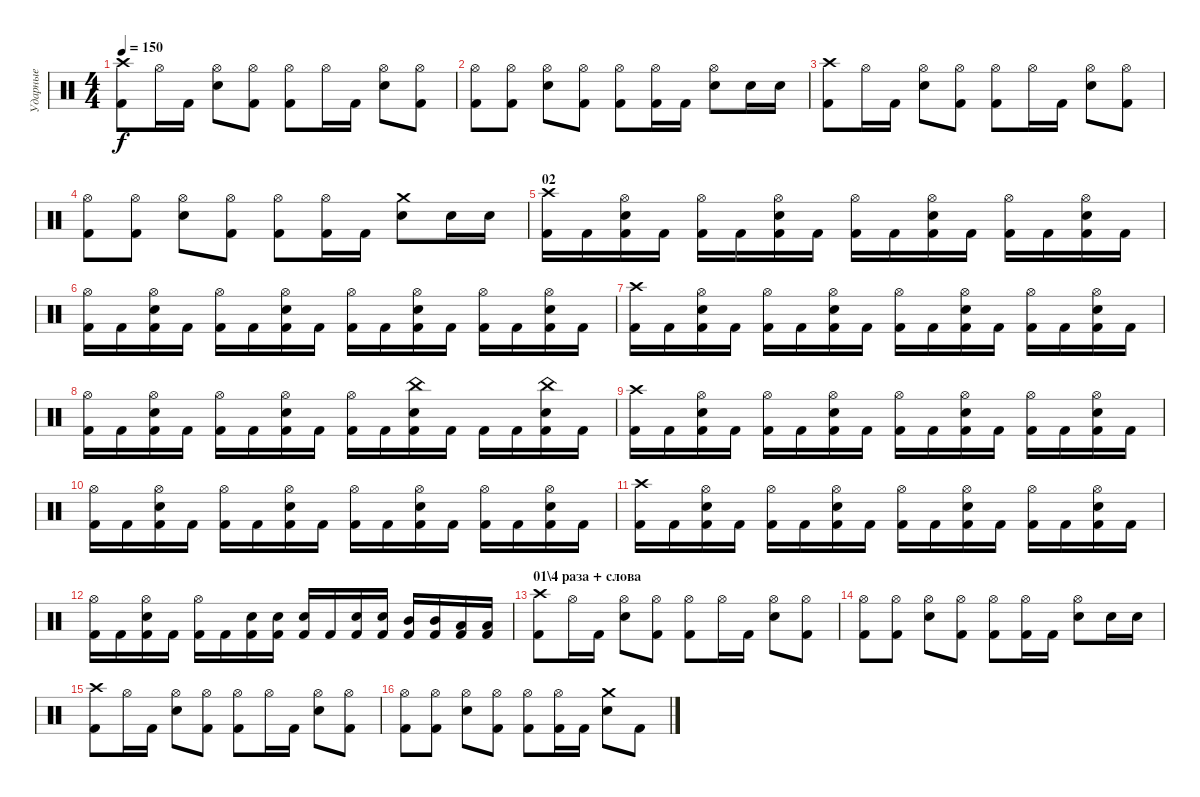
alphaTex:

\track ("Ударные" "Ударные") {instrument percussion}
\staff {score}
\articulation defaults
\ts (4 4)
\tempo 150
\clef neutral
\ks c
("Crash high (hit)" "Kick (hit) 2").8{dy f} "Hi-Hat (open)".16 "Kick (hit) 2".16 ("Hi-Hat (open)" "Electric Snare (hit)").8 ("Hi-Hat (open)" "Kick (hit) 2").8 ("Hi-Hat (open)" "Kick (hit) 2").8 "Hi-Hat (open)".16 "Kick (hit) 2".16 ("Hi-Hat (open)" "Electric Snare (hit)").8 ("Hi-Hat (open)" "Kick (hit) 2").8 |
("Hi-Hat (open)" "Kick (hit) 2").8 ("Hi-Hat (open)" "Kick (hit) 2").8 ("Hi-Hat (open)" "Electric Snare (hit)").8 ("Hi-Hat (open)" "Kick (hit) 2").8 ("Hi-Hat (open)" "Kick (hit) 2").8 ("Hi-Hat (open)" "Kick (hit) 2").16 "Kick (hit) 2".16 ("Hi-Hat (open)" "Electric Snare (hit)").8 "Electric Snare (hit)".16 "Electric Snare (hit)".16 |
("Crash high (hit)" "Kick (hit) 2").8 "Hi-Hat (open)".16 "Kick (hit) 2".16 ("Hi-Hat (open)" "Electric Snare (hit)").8 ("Hi-Hat (open)" "Kick (hit) 2").8 ("Hi-Hat (open)" "Kick (hit) 2").8 "Hi-Hat (open)".16 "Kick (hit) 2".16 ("Hi-Hat (open)" "Electric Snare (hit)").8 ("Hi-Hat (open)" "Kick (hit) 2").8 |
("Hi-Hat (open)" "Kick (hit) 2").8 ("Hi-Hat (open)" "Kick (hit) 2").8 ("Hi-Hat (open)" "Electric Snare (hit)").8 ("Hi-Hat (open)" "Kick (hit) 2").8 ("Hi-Hat (open)" "Kick (hit) 2").8 ("Hi-Hat (open)" "Kick (hit) 2").16 "Kick (hit) 2".16 ("Crash medium (hit)" "Electric Snare (hit)").8 "Electric Snare (hit)".16 "Electric Snare (hit)".16 |
\section ("" "02")
("Crash high (hit)" "Kick (hit) 2").16 "Kick (hit) 2".16 ("Hi-Hat (open)" "Electric Snare (hit)" "Kick (hit) 2").16 "Kick (hit) 2".16 ("Hi-Hat (open)" "Kick (hit) 2").16 "Kick (hit) 2".16 ("Hi-Hat (open)" "Electric Snare (hit)" "Kick (hit) 2").16 "Kick (hit) 2".16 ("Hi-Hat (open)" "Kick (hit) 2").16 "Kick (hit) 2".16 ("Hi-Hat (open)" "Electric Snare (hit)" "Kick (hit) 2").16 "Kick (hit) 2".16 ("Hi-Hat (open)" "Kick (hit) 2").16 "Kick (hit) 2".16 ("Hi-Hat (open)" "Electric Snare (hit)" "Kick (hit) 2").16 "Kick (hit) 2".16 |
("Hi-Hat (open)" "Kick (hit) 2").16 "Kick (hit) 2".16 ("Hi-Hat (open)" "Electric Snare (hit)" "Kick (hit) 2").16 "Kick (hit) 2".16 ("Hi-Hat (open)" "Kick (hit) 2").16 "Kick (hit) 2".16 ("Hi-Hat (open)" "Electric Snare (hit)" "Kick (hit) 2").16 "Kick (hit) 2".16 ("Hi-Hat (open)" "Kick (hit) 2").16 "Kick (hit) 2".16 ("Hi-Hat (open)" "Electric Snare (hit)" "Kick (hit) 2").16 "Kick (hit) 2".16 ("Hi-Hat (open)" "Kick (hit) 2").16 "Kick (hit) 2".16 ("Hi-Hat (open)" "Electric Snare (hit)" "Kick (hit) 2").16 "Kick (hit) 2".16 |
("Crash high (hit)" "Kick (hit) 2").16 "Kick (hit) 2".16 ("Hi-Hat (open)" "Electric Snare (hit)" "Kick (hit) 2").16 "Kick (hit) 2".16 ("Hi-Hat (open)" "Kick (hit) 2").16 "Kick (hit) 2".16 ("Hi-Hat (open)" "Electric Snare (hit)" "Kick (hit) 2").16 "Kick (hit) 2".16 ("Hi-Hat (open)" "Kick (hit) 2").16 "Kick (hit) 2".16 ("Hi-Hat (open)" "Electric Snare (hit)" "Kick (hit) 2").16 "Kick (hit) 2".16 ("Hi-Hat (open)" "Kick (hit) 2").16 "Kick (hit) 2".16 ("Hi-Hat (open)" "Electric Snare (hit)" "Kick (hit) 2").16 "Kick (hit) 2".16 |
("Hi-Hat (open)" "Kick (hit) 2").16 "Kick (hit) 2".16 ("Hi-Hat (open)" "Electric Snare (hit)" "Kick (hit) 2").16 "Kick (hit) 2".16 ("Hi-Hat (open)" "Kick (hit) 2").16 "Kick (hit) 2".16 ("Hi-Hat (open)" "Electric Snare (hit)" "Kick (hit) 2").16 "Kick (hit) 2".16 ("Hi-Hat (open)" "Kick (hit) 2").16 "Kick (hit) 2".16 ("China (hit)" "Electric Snare (hit)" "Kick (hit) 2").16 "Kick (hit) 2".16 "Kick (hit) 2".16 "Kick (hit) 2".16 ("China (hit)" "Electric Snare (hit)" "Kick (hit) 2").16 "Kick (hit) 2".16 |
("Crash high (hit)" "Kick (hit) 2").16 "Kick (hit) 2".16 ("Hi-Hat (open)" "Electric Snare (hit)" "Kick (hit) 2").16 "Kick (hit) 2".16 ("Hi-Hat (open)" "Kick (hit) 2").16 "Kick (hit) 2".16 ("Hi-Hat (open)" "Electric Snare (hit)" "Kick (hit) 2").16 "Kick (hit) 2".16 ("Hi-Hat (open)" "Kick (hit) 2").16 "Kick (hit) 2".16 ("Hi-Hat (open)" "Electric Snare (hit)" "Kick (hit) 2").16 "Kick (hit) 2".16 ("Hi-Hat (open)" "Kick (hit) 2").16 "Kick (hit) 2".16 ("Hi-Hat (open)" "Electric Snare (hit)" "Kick (hit) 2").16 "Kick (hit) 2".16 |
("Hi-Hat (open)" "Kick (hit) 2").16 "Kick (hit) 2".16 ("Hi-Hat (open)" "Electric Snare (hit)" "Kick (hit) 2").16 "Kick (hit) 2".16 ("Hi-Hat (open)" "Kick (hit) 2").16 "Kick (hit) 2".16 ("Hi-Hat (open)" "Electric Snare (hit)" "Kick (hit) 2").16 "Kick (hit) 2".16 ("Hi-Hat (open)" "Kick (hit) 2").16 "Kick (hit) 2".16 ("Hi-Hat (open)" "Electric Snare (hit)" "Kick (hit) 2").16 "Kick (hit) 2".16 ("Hi-Hat (open)" "Kick (hit) 2").16 "Kick (hit) 2".16 ("Hi-Hat (open)" "Electric Snare (hit)" "Kick (hit) 2").16 "Kick (hit) 2".16 |
("Crash high (hit)" "Kick (hit) 2").16 "Kick (hit) 2".16 ("Hi-Hat (open)" "Electric Snare (hit)" "Kick (hit) 2").16 "Kick (hit) 2".16 ("Hi-Hat (open)" "Kick (hit) 2").16 "Kick (hit) 2".16 ("Hi-Hat (open)" "Electric Snare (hit)" "Kick (hit) 2").16 "Kick (hit) 2".16 ("Hi-Hat (open)" "Kick (hit) 2").16 "Kick (hit) 2".16 ("Hi-Hat (open)" "Electric Snare (hit)" "Kick (hit) 2").16 "Kick (hit) 2".16 ("Hi-Hat (open)" "Kick (hit) 2").16 "Kick (hit) 2".16 ("Hi-Hat (open)" "Electric Snare (hit)" "Kick (hit) 2").16 "Kick (hit) 2".16 |
("Hi-Hat (open)" "Kick (hit) 2").16 "Kick (hit) 2".16 ("Hi-Hat (open)" "Electric Snare (hit)" "Kick (hit) 2").16 "Kick (hit) 2".16 ("Hi-Hat (open)" "Kick (hit) 2").16 "Kick (hit) 2".16 ("Electric Snare (hit)" "Kick (hit) 2").16 ("Electric Snare (hit)" "Kick (hit) 2").16 ("Electric Snare (hit)" "Kick (hit) 2").16 "Kick (hit) 2".16 ("Electric Snare (hit)" "Kick (hit) 2").16 ("Electric Snare (hit)" "Kick (hit) 2").16 ("Mid Tom (hit)" "Kick (hit) 2").16 ("Mid Tom (hit)" "Kick (hit) 2").16 ("Low Tom (hit)" "Kick (hit) 2").16 ("Low Tom (hit)" "Kick (hit) 2").16 |
\section ("" "01\\4 раза + слова")
("Crash high (hit)" "Kick (hit) 2").8 "Hi-Hat (open)".16 "Kick (hit) 2".16 ("Hi-Hat (open)" "Electric Snare (hit)").8 ("Hi-Hat (open)" "Kick (hit) 2").8 ("Hi-Hat (open)" "Kick (hit) 2").8 "Hi-Hat (open)".16 "Kick (hit) 2".16 ("Hi-Hat (open)" "Electric Snare (hit)").8 ("Hi-Hat (open)" "Kick (hit) 2").8 |
("Hi-Hat (open)" "Kick (hit) 2").8 ("Hi-Hat (open)" "Kick (hit) 2").8 ("Hi-Hat (open)" "Electric Snare (hit)").8 ("Hi-Hat (open)" "Kick (hit) 2").8 ("Hi-Hat (open)" "Kick (hit) 2").8 ("Hi-Hat (open)" "Kick (hit) 2").16 "Kick (hit) 2".16 ("Hi-Hat (open)" "Electric Snare (hit)").8 "Electric Snare (hit)".16 "Electric Snare (hit)".16 |
("Crash high (hit)" "Kick (hit) 2").8 "Hi-Hat (open)".16 "Kick (hit) 2".16 ("Hi-Hat (open)" "Electric Snare (hit)").8 ("Hi-Hat (open)" "Kick (hit) 2").8 ("Hi-Hat (open)" "Kick (hit) 2").8 "Hi-Hat (open)".16 "Kick (hit) 2".16 ("Hi-Hat (open)" "Electric Snare (hit)").8 ("Hi-Hat (open)" "Kick (hit) 2").8 |
("Hi-Hat (open)" "Kick (hit) 2").8 ("Hi-Hat (open)" "Kick (hit) 2").8 ("Hi-Hat (open)" "Electric Snare (hit)").8 ("Hi-Hat (open)" "Kick (hit) 2").8 ("Hi-Hat (open)" "Kick (hit) 2").8 ("Hi-Hat (open)" "Kick (hit) 2").16 "Kick (hit) 2".16 ("Crash medium (hit)" "Electric Snare (hit)").8 "Kick (hit) 2".8
